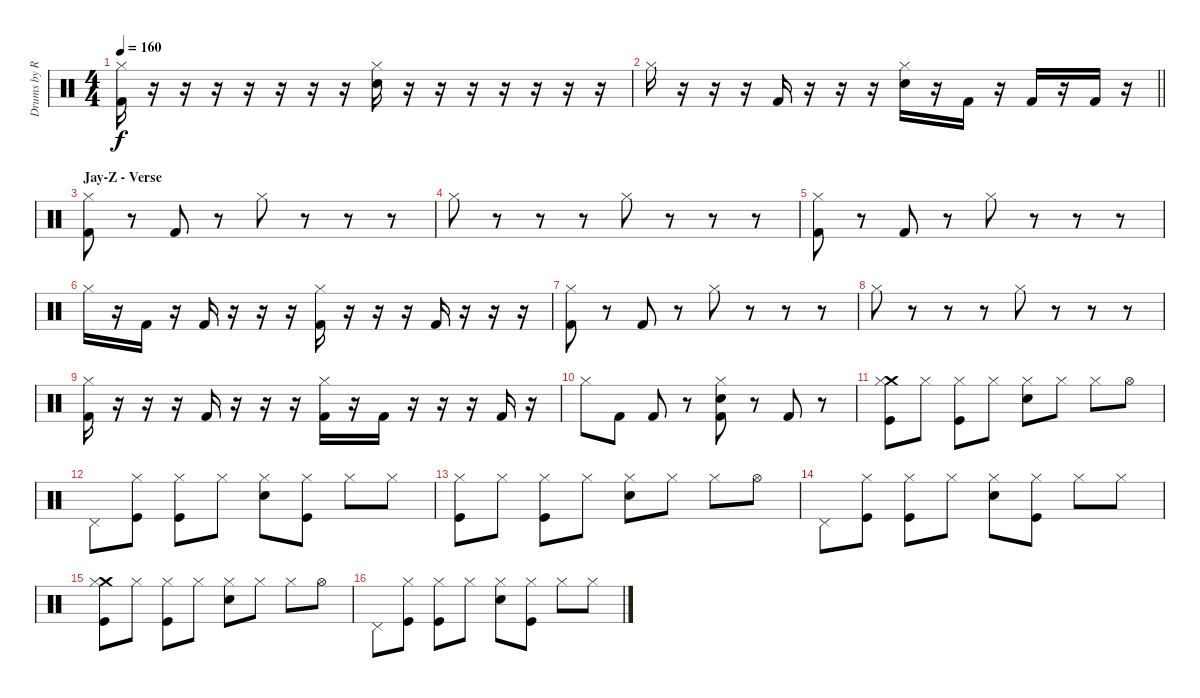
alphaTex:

\track ("Drums by Rob Bourdon" "Drums by R") {instrument percussion}
\staff {score}
\articulation defaults
\ts (4 4)
\tempo 160
\clef neutral
\ks c
("Hi-Hat (closed)" "Kick (hit) 2").16{dy f} r.16 r.16 r.16 r.16 r.16 r.16 r.16 ("Hi-Hat (closed)" "Snare (hit) 2").16 r.16 r.16 r.16 r.16 r.16 r.16 r.16 |
\barLineRight lightlight "Hi-Hat (closed)".16
r.16 r.16 r.16 "Kick (hit) 2".16 r.16 r.16 r.16 ("Hi-Hat (closed)" "Snare (hit) 2").16 r.16 "Kick (hit) 2".16 r.16 "Kick (hit) 2".16 r.16 "Kick (hit) 2".16 r.16 |
\section ("" "Jay-Z - Verse")
("Hi-Hat (closed)" "Kick (hit) 2").8 r.8 "Kick (hit) 2".8 r.8 "Hi-Hat (closed)".8 r.8 r.8 r.8 |
"Hi-Hat (closed)".8 r.8 r.8 r.8 "Hi-Hat (closed)".8 r.8 r.8 r.8 |
("Hi-Hat (closed)" "Kick (hit) 2").8 r.8 "Kick (hit) 2".8 r.8 "Hi-Hat (closed)".8 r.8 r.8 r.8 |
"Hi-Hat (closed)".16 r.16 "Kick (hit) 2".16 r.16 "Kick (hit) 2".16 r.16 r.16 r.16 ("Hi-Hat (closed)" "Kick (hit) 2").16 r.16 r.16 r.16 "Kick (hit) 2".16 r.16 r.16 r.16 |
("Hi-Hat (closed)" "Kick (hit) 2").8 r.8 "Kick (hit) 2".8 r.8 "Hi-Hat (closed)".8 r.8 r.8 r.8 |
"Hi-Hat (closed)".8 r.8 r.8 r.8 "Hi-Hat (closed)".8 r.8 r.8 r.8 |
("Hi-Hat (closed)" "Kick (hit) 2").16 r.16 r.16 r.16 "Kick (hit) 2".16 r.16 r.16 r.16 ("Hi-Hat (closed)" "Kick (hit) 2").16 r.16 "Kick (hit) 2".16 r.16 r.16 r.16 "Kick (hit) 2".16 r.16 |
"Hi-Hat (closed)".8 "Kick (hit) 2".8 "Kick (hit) 2".8 r.8 ("Hi-Hat (closed)" "Kick (hit) 2" "Snare (hit) 2").8 r.8 "Kick (hit) 2".8 r.8 |
("Crash medium (hit)" "Hi-Hat (closed)" "Kick (hit)").8 "Hi-Hat (closed)".8 ("Hi-Hat (closed)" "Kick (hit)").8 "Hi-Hat (closed)".8 ("Hi-Hat (closed)" "Snare (hit) 2").8 "Hi-Hat (closed)".8 "Hi-Hat (closed)".8 "Hi-Hat (open)".8 |
"Pedal Hi-Hat (hit)".8 ("Hi-Hat (closed)" "Kick (hit)").8 ("Hi-Hat (closed)" "Kick (hit)").8 "Hi-Hat (closed)".8 ("Hi-Hat (closed)" "Snare (hit) 2").8 ("Hi-Hat (closed)" "Kick (hit)").8 "Hi-Hat (closed)".8 "Hi-Hat (closed)".8 |
("Hi-Hat (closed)" "Kick (hit)").8 "Hi-Hat (closed)".8 ("Hi-Hat (closed)" "Kick (hit)").8 "Hi-Hat (closed)".8 ("Hi-Hat (closed)" "Snare (hit) 2").8 "Hi-Hat (closed)".8 "Hi-Hat (closed)".8 "Hi-Hat (open)".8 |
"Pedal Hi-Hat (hit)".8 ("Hi-Hat (closed)" "Kick (hit)").8 ("Hi-Hat (closed)" "Kick (hit)").8 "Hi-Hat (closed)".8 ("Hi-Hat (closed)" "Snare (hit) 2").8 ("Hi-Hat (closed)" "Kick (hit)").8 "Hi-Hat (closed)".8 "Hi-Hat (closed)".8 |
("Crash medium (hit)" "Hi-Hat (closed)" "Kick (hit)").8 "Hi-Hat (closed)".8 ("Hi-Hat (closed)" "Kick (hit)").8 "Hi-Hat (closed)".8 ("Hi-Hat (closed)" "Snare (hit) 2").8 "Hi-Hat (closed)".8 "Hi-Hat (closed)".8 "Hi-Hat (open)".8 |
"Pedal Hi-Hat (hit)".8 ("Hi-Hat (closed)" "Kick (hit)").8 ("Hi-Hat (closed)" "Kick (hit)").8 "Hi-Hat (closed)".8 ("Hi-Hat (closed)" "Snare (hit) 2").8 ("Hi-Hat (closed)" "Kick (hit)").8 "Hi-Hat (closed)".8 "Hi-Hat (closed)".8
